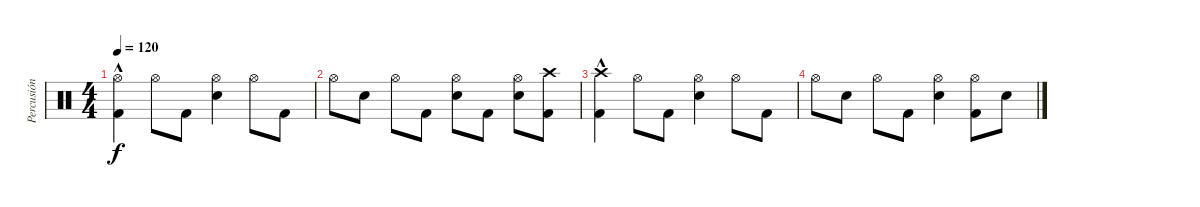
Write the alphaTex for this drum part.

\track ("Percusión" "Percusión") {instrument percussion}
\staff {score}
\articulation defaults
\ts (4 4)
\tempo 120
\clef neutral
\ks c
("Kick (hit) 2"{hac} "Hi-Hat (open)").4{dy f} "Hi-Hat (open)".8 "Kick (hit) 2".8 ("Hi-Hat (open)" "Electric Snare (hit)").4 "Hi-Hat (open)".8 "Kick (hit) 2".8 |
"Hi-Hat (open)".8 "Electric Snare (hit)".8 "Hi-Hat (open)".8 "Kick (hit) 2".8 ("Electric Snare (hit)" "Hi-Hat (open)").8 "Kick (hit) 2".8 ("Electric Snare (hit)" "Hi-Hat (open)").8 ("Kick (hit) 2" "Crash high (hit)").8 |
("Kick (hit) 2"{hac} "Crash high (hit)").4 "Hi-Hat (open)".8 "Kick (hit) 2".8 ("Electric Snare (hit)" "Hi-Hat (open)").4 "Hi-Hat (open)".8 "Kick (hit) 2".8 |
"Hi-Hat (open)".8 "Electric Snare (hit)".8 "Hi-Hat (open)".8 "Kick (hit) 2".8 ("Electric Snare (hit)" "Hi-Hat (open)").4 ("Kick (hit) 2" "Hi-Hat (open)").8 "Electric Snare (hit)".8
